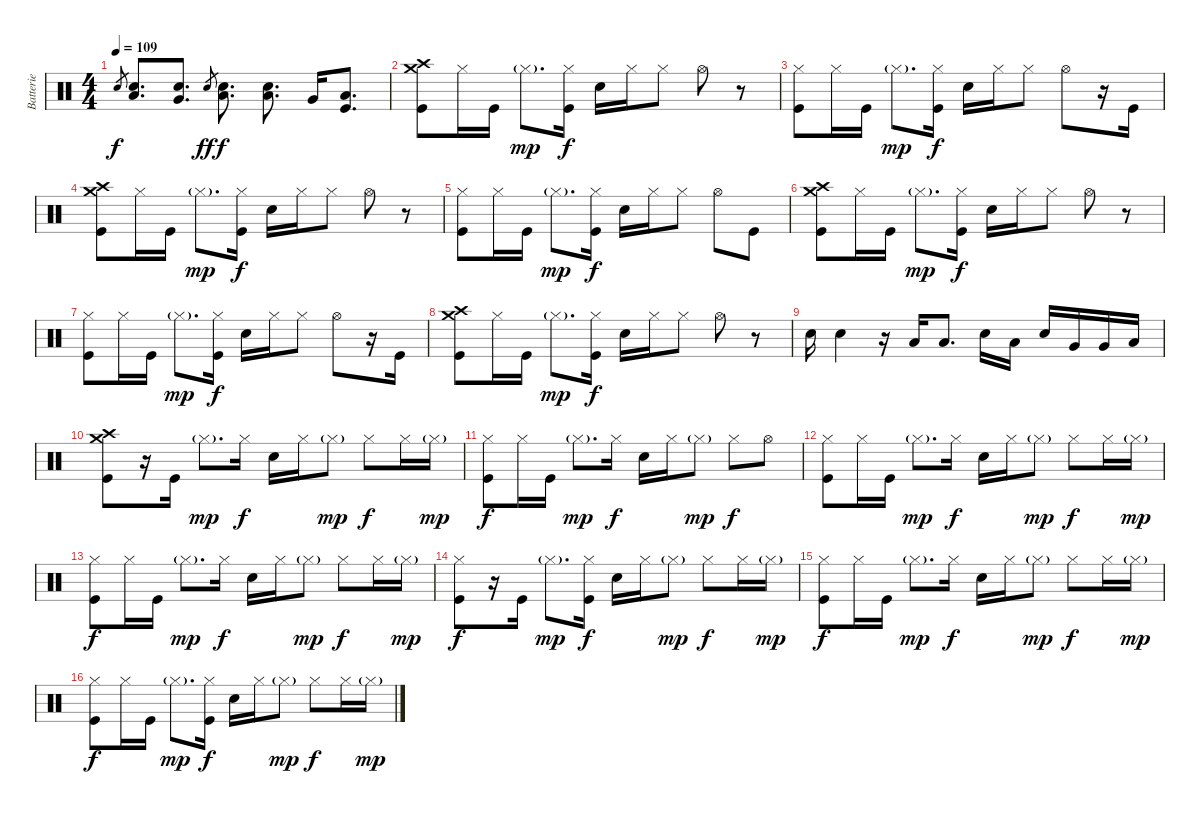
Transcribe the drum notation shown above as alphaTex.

\track ("Batterie" "Batterie") {instrument percussion}
\staff {score}
\articulation defaults
\ts (4 4)
\tempo 109
\clef neutral
\ks c "Electric Snare (hit)".8{gr dy f}
("Electric Snare (hit)" "Low Tom (hit)").8{d} ("Electric Snare (hit)" "Very Low Tom (hit)").8{d} "Electric Snare (hit)".8{gr dy ff} ("Electric Snare (hit)" "Low Tom (hit)").8{d dy f} ("Electric Snare (hit)" "Low Tom (hit)").8{d} "Very Low Tom (hit)".16 ("Low Floor Tom (hit)" "Kick (hit)").8{d} |
("Crash high (hit)" "Crash medium (hit)" "Kick (hit)").8 "Hi-Hat (closed)".16 "Kick (hit)".16 "Hi-Hat (closed)"{g}.8{d dy mp} ("Hi-Hat (closed)" "Kick (hit)").16{dy f} "Electric Snare (hit)".16 "Hi-Hat (closed)".16 "Hi-Hat (closed)".8 "Hi-Hat (open)".8 r.8 |
("Hi-Hat (closed)" "Kick (hit)").8 "Hi-Hat (closed)".16 "Kick (hit)".16 "Hi-Hat (closed)"{g}.8{d dy mp} ("Hi-Hat (closed)" "Kick (hit)").16{dy f} "Electric Snare (hit)".16 "Hi-Hat (closed)".16 "Hi-Hat (closed)".8 "Hi-Hat (open)".8 r.16 "Kick (hit)".16 |
("Crash high (hit)" "Crash medium (hit)" "Kick (hit)").8 "Hi-Hat (closed)".16 "Kick (hit)".16 "Hi-Hat (closed)"{g}.8{d dy mp} ("Hi-Hat (closed)" "Kick (hit)").16{dy f} "Electric Snare (hit)".16 "Hi-Hat (closed)".16 "Hi-Hat (closed)".8 "Hi-Hat (open)".8 r.8 |
("Hi-Hat (closed)" "Kick (hit)").8 "Hi-Hat (closed)".16 "Kick (hit)".16 "Hi-Hat (closed)"{g}.8{d dy mp} ("Hi-Hat (closed)" "Kick (hit)").16{dy f} "Electric Snare (hit)".16 "Hi-Hat (closed)".16 "Hi-Hat (closed)".8 "Hi-Hat (open)".8 "Kick (hit)".8 |
("Crash high (hit)" "Crash medium (hit)" "Kick (hit)").8 "Hi-Hat (closed)".16 "Kick (hit)".16 "Hi-Hat (closed)"{g}.8{d dy mp} ("Hi-Hat (closed)" "Kick (hit)").16{dy f} "Electric Snare (hit)".16 "Hi-Hat (closed)".16 "Hi-Hat (closed)".8 "Hi-Hat (open)".8 r.8 |
("Hi-Hat (closed)" "Kick (hit)").8 "Hi-Hat (closed)".16 "Kick (hit)".16 "Hi-Hat (closed)"{g}.8{d dy mp} ("Hi-Hat (closed)" "Kick (hit)").16{dy f} "Electric Snare (hit)".16 "Hi-Hat (closed)".16 "Hi-Hat (closed)".8 "Hi-Hat (open)".8 r.16 "Kick (hit)".16 |
("Crash high (hit)" "Crash medium (hit)" "Kick (hit)").8 "Hi-Hat (closed)".16 "Kick (hit)".16 "Hi-Hat (closed)"{g}.8{d dy mp} ("Hi-Hat (closed)" "Kick (hit)").16{dy f} "Electric Snare (hit)".16 "Hi-Hat (closed)".16 "Hi-Hat (closed)".8 "Hi-Hat (open)".8 r.8 |
"Electric Snare (hit)".16 "Electric Snare (hit)".4 r.16 "Low Tom (hit)".16 "Low Tom (hit)".8{d} "Electric Snare (hit)".16 "Low Tom (hit)".16 "Electric Snare (hit)".16 "Very Low Tom (hit)".16 "Very Low Tom (hit)".16 "Low Floor Tom (hit)".16 |
("Crash high (hit)" "Crash medium (hit)" "Kick (hit)").8 r.16 "Kick (hit)".16 "Hi-Hat (closed)"{g}.8{d dy mp} "Hi-Hat (closed)".16{dy f} "Electric Snare (hit)".16 "Hi-Hat (closed)".16 "Hi-Hat (closed)"{g}.8{dy mp} "Hi-Hat (closed)".8{dy f} "Hi-Hat (closed)".16 "Hi-Hat (closed)"{g}.16{dy mp} |
("Hi-Hat (closed)" "Kick (hit)").8{dy f} "Hi-Hat (closed)".16 "Kick (hit)".16 "Hi-Hat (closed)"{g}.8{d dy mp} "Hi-Hat (closed)".16{dy f} "Electric Snare (hit)".16 "Hi-Hat (closed)".16 "Hi-Hat (closed)"{g}.8{dy mp} "Hi-Hat (closed)".8{dy f} "Hi-Hat (open)".8 |
("Hi-Hat (closed)" "Kick (hit)").8 "Hi-Hat (closed)".16 "Kick (hit)".16 "Hi-Hat (closed)"{g}.8{d dy mp} "Hi-Hat (closed)".16{dy f} "Electric Snare (hit)".16 "Hi-Hat (closed)".16 "Hi-Hat (closed)"{g}.8{dy mp} "Hi-Hat (closed)".8{dy f} "Hi-Hat (closed)".16 "Hi-Hat (closed)"{g}.16{dy mp} |
("Hi-Hat (closed)" "Kick (hit)").8{dy f} "Hi-Hat (closed)".16 "Kick (hit)".16 "Hi-Hat (closed)"{g}.8{d dy mp} "Hi-Hat (closed)".16{dy f} "Electric Snare (hit)".16 "Hi-Hat (closed)".16 "Hi-Hat (closed)"{g}.8{dy mp} "Hi-Hat (closed)".8{dy f} "Hi-Hat (closed)".16 "Hi-Hat (closed)"{g}.16{dy mp} |
("Hi-Hat (closed)" "Kick (hit)").8{dy f} r.16 "Kick (hit)".16 "Hi-Hat (closed)"{g}.8{d dy mp} ("Hi-Hat (closed)" "Kick (hit)").16{dy f} "Electric Snare (hit)".16 "Hi-Hat (closed)".16 "Hi-Hat (closed)"{g}.8{dy mp} "Hi-Hat (closed)".8{dy f} "Hi-Hat (closed)".16 "Hi-Hat (closed)"{g}.16{dy mp} |
("Hi-Hat (closed)" "Kick (hit)").8{dy f} "Hi-Hat (closed)".16 "Kick (hit)".16 "Hi-Hat (closed)"{g}.8{d dy mp} "Hi-Hat (closed)".16{dy f} "Electric Snare (hit)".16 "Hi-Hat (closed)".16 "Hi-Hat (closed)"{g}.8{dy mp} "Hi-Hat (closed)".8{dy f} "Hi-Hat (closed)".16 "Hi-Hat (closed)"{g}.16{dy mp} |
("Hi-Hat (closed)" "Kick (hit)").8{dy f} "Hi-Hat (closed)".16 "Kick (hit)".16 "Hi-Hat (closed)"{g}.8{d dy mp} ("Hi-Hat (closed)" "Kick (hit)").16{dy f} "Electric Snare (hit)".16 "Hi-Hat (closed)".16 "Hi-Hat (closed)"{g}.8{dy mp} "Hi-Hat (closed)".8{dy f} "Hi-Hat (closed)".16 "Hi-Hat (closed)"{g}.16{dy mp}
